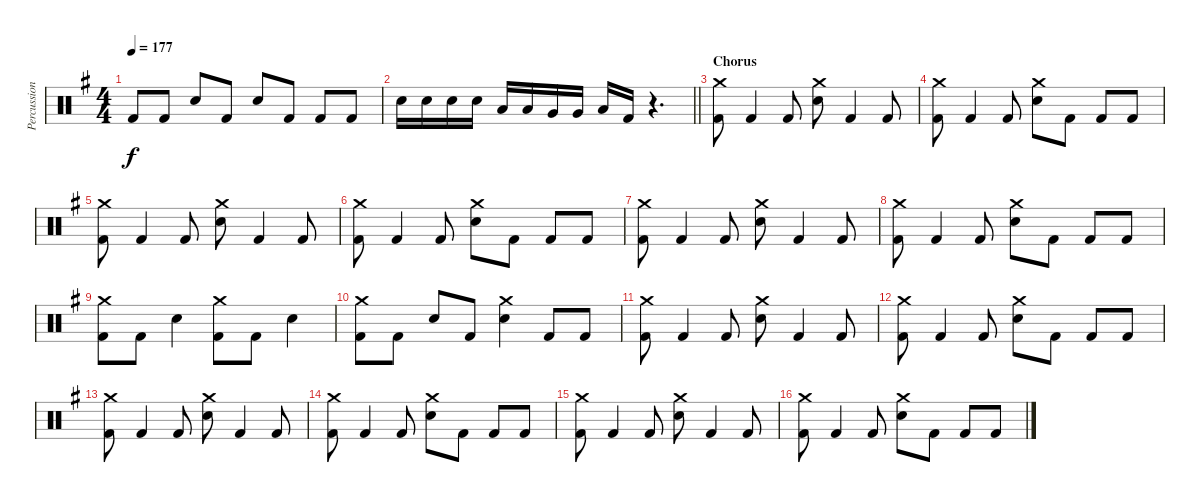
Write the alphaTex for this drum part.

\track ("Percussion" "Percussion") {instrument percussion}
\staff {score}
\articulation defaults
\ts (4 4)
\tempo 177
\clef neutral
\ks g "Kick (hit) 2".8{dy f} "Kick (hit) 2".8 "Electric Snare (hit)".8 "Kick (hit) 2".8 "Electric Snare (hit)".8 "Kick (hit) 2".8 "Kick (hit) 2".8 "Kick (hit) 2".8
|
\barLineRight lightlight "Electric Snare (hit)".16 "Electric Snare (hit)".16 "Electric Snare (hit)".16 "Electric Snare (hit)".16 "Low Tom (hit)".16 "Low Tom (hit)".16 "Very Low Tom (hit)".16 "Very Low Tom (hit)".16 "Low Floor Tom (hit)".16 "Kick (hit) 2".16
r.4{d} |
\section ("" "Chorus")
("Crash medium (hit)" "Kick (hit) 2").8 "Kick (hit) 2".4 "Kick (hit) 2".8 ("Crash medium (hit)" "Electric Snare (hit)").8 "Kick (hit) 2".4 "Kick (hit) 2".8 |
("Crash medium (hit)" "Kick (hit) 2").8 "Kick (hit) 2".4 "Kick (hit) 2".8 ("Crash medium (hit)" "Electric Snare (hit)").8 "Kick (hit) 2".8 "Kick (hit) 2".8 "Kick (hit) 2".8 |
("Crash medium (hit)" "Kick (hit) 2").8 "Kick (hit) 2".4 "Kick (hit) 2".8 ("Crash medium (hit)" "Electric Snare (hit)").8 "Kick (hit) 2".4 "Kick (hit) 2".8 |
("Crash medium (hit)" "Kick (hit) 2").8 "Kick (hit) 2".4 "Kick (hit) 2".8 ("Crash medium (hit)" "Electric Snare (hit)").8 "Kick (hit) 2".8 "Kick (hit) 2".8 "Kick (hit) 2".8 |
("Crash medium (hit)" "Kick (hit) 2").8 "Kick (hit) 2".4 "Kick (hit) 2".8 ("Crash medium (hit)" "Electric Snare (hit)").8 "Kick (hit) 2".4 "Kick (hit) 2".8 |
("Crash medium (hit)" "Kick (hit) 2").8 "Kick (hit) 2".4 "Kick (hit) 2".8 ("Crash medium (hit)" "Electric Snare (hit)").8 "Kick (hit) 2".8 "Kick (hit) 2".8 "Kick (hit) 2".8 |
("Crash medium (hit)" "Kick (hit) 2").8 "Kick (hit) 2".8 "Electric Snare (hit)".4 ("Crash medium (hit)" "Kick (hit) 2").8 "Kick (hit) 2".8 "Electric Snare (hit)".4 |
("Crash medium (hit)" "Kick (hit) 2").8 "Kick (hit) 2".8 "Electric Snare (hit)".8 "Kick (hit) 2".8 ("Crash medium (hit)" "Electric Snare (hit)").4 "Kick (hit) 2".8 "Kick (hit) 2".8 |
("Crash medium (hit)" "Kick (hit) 2").8 "Kick (hit) 2".4 "Kick (hit) 2".8 ("Crash medium (hit)" "Electric Snare (hit)").8 "Kick (hit) 2".4 "Kick (hit) 2".8 |
("Crash medium (hit)" "Kick (hit) 2").8 "Kick (hit) 2".4 "Kick (hit) 2".8 ("Crash medium (hit)" "Electric Snare (hit)").8 "Kick (hit) 2".8 "Kick (hit) 2".8 "Kick (hit) 2".8 |
("Crash medium (hit)" "Kick (hit) 2").8 "Kick (hit) 2".4 "Kick (hit) 2".8 ("Crash medium (hit)" "Electric Snare (hit)").8 "Kick (hit) 2".4 "Kick (hit) 2".8 |
("Crash medium (hit)" "Kick (hit) 2").8 "Kick (hit) 2".4 "Kick (hit) 2".8 ("Crash medium (hit)" "Electric Snare (hit)").8 "Kick (hit) 2".8 "Kick (hit) 2".8 "Kick (hit) 2".8 |
("Crash medium (hit)" "Kick (hit) 2").8 "Kick (hit) 2".4 "Kick (hit) 2".8 ("Crash medium (hit)" "Electric Snare (hit)").8 "Kick (hit) 2".4 "Kick (hit) 2".8 |
("Crash medium (hit)" "Kick (hit) 2").8 "Kick (hit) 2".4 "Kick (hit) 2".8 ("Crash medium (hit)" "Electric Snare (hit)").8 "Kick (hit) 2".8 "Kick (hit) 2".8 "Kick (hit) 2".8
